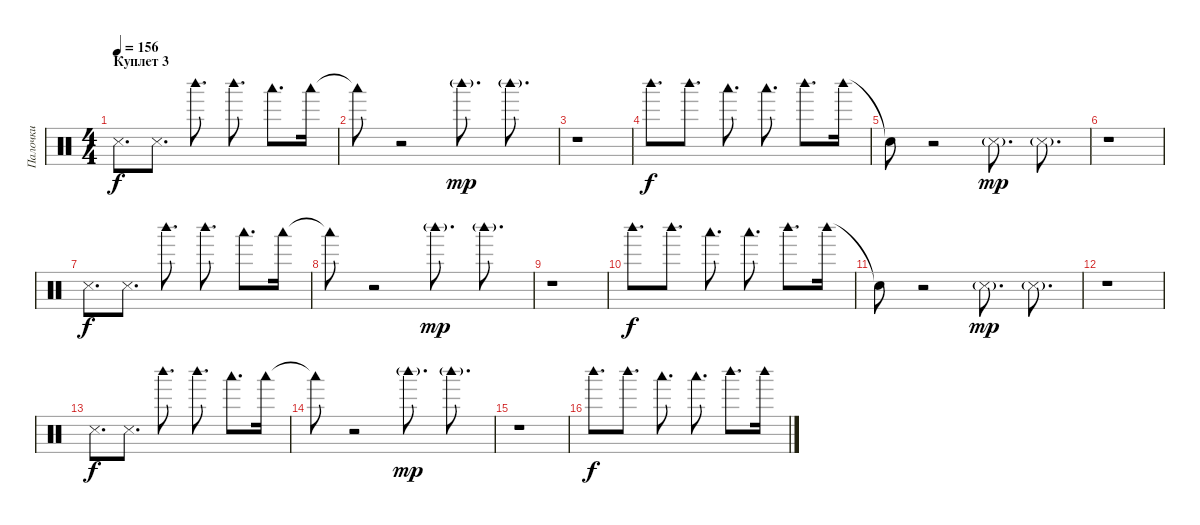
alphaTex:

\track ("Палочки" "Палочки") {instrument percussion}
\staff {score}
\articulation defaults
\ts (4 4)
\section ("" "Куплет 3")
\tempo 156
\clef neutral
\ks c "Metronome (hit)".8{d dy f} "Metronome (hit)".8{d} "Woodblock high (hit)".8{d} "Woodblock high (hit)".8{d} "Woodblock low (hit)".8{d} "Woodblock low (hit)".16
|
"Woodblock low (hit)"{t}.8 r.2 "Woodblock high (hit)"{g}.8{d dy mp} "Woodblock high (hit)"{g}.8{d} |
r.1 |
"Woodblock high (hit)".8{d dy f} "Woodblock high (hit)".8{d} "Woodblock low (hit)".8{d} "Woodblock low (hit)".8{d} "Woodblock high (hit)".8{d} "Woodblock high (hit)".16 |
"Snare (hit)"{t}.8 r.2 "Metronome (hit)"{g}.8{d dy mp} "Metronome (hit)"{g}.8{d} |
r.1 |
"Metronome (hit)".8{d dy f} "Metronome (hit)".8{d} "Woodblock high (hit)".8{d} "Woodblock high (hit)".8{d} "Woodblock low (hit)".8{d} "Woodblock low (hit)".16 |
"Woodblock low (hit)"{t}.8 r.2 "Woodblock high (hit)"{g}.8{d dy mp} "Woodblock high (hit)"{g}.8{d} |
r.1 |
"Woodblock high (hit)".8{d dy f} "Woodblock high (hit)".8{d} "Woodblock low (hit)".8{d} "Woodblock low (hit)".8{d} "Woodblock high (hit)".8{d} "Woodblock high (hit)".16 |
"Snare (hit)"{t}.8 r.2 "Metronome (hit)"{g}.8{d dy mp} "Metronome (hit)"{g}.8{d} |
r.1 |
"Metronome (hit)".8{d dy f} "Metronome (hit)".8{d} "Woodblock high (hit)".8{d} "Woodblock high (hit)".8{d} "Woodblock low (hit)".8{d} "Woodblock low (hit)".16 |
"Woodblock low (hit)"{t}.8 r.2 "Woodblock high (hit)"{g}.8{d dy mp} "Woodblock high (hit)"{g}.8{d} |
r.1 |
"Woodblock high (hit)".8{d dy f} "Woodblock high (hit)".8{d} "Woodblock low (hit)".8{d} "Woodblock low (hit)".8{d} "Woodblock high (hit)".8{d} "Woodblock high (hit)".16
